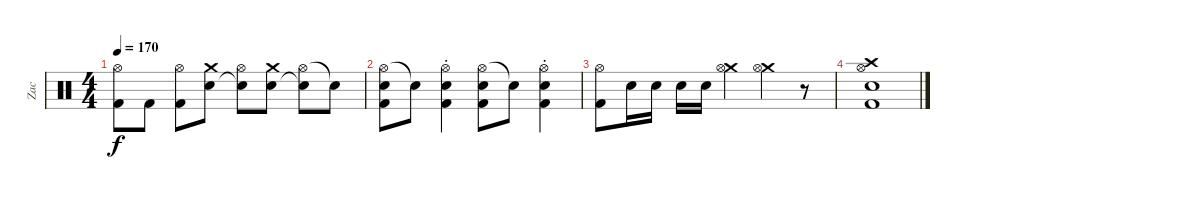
\track ("Zac" "Zac") {instrument percussion}
\staff {score}
\articulation defaults
\ts (4 4)
\tempo 170
\clef neutral
\ks c
("Hi-Hat (open)" "Kick (hit) 2").8{dy f} "Kick (hit) 2".8 ("Hi-Hat (open)" "Kick (hit) 2").8 ("Crash medium (hit)" "Electric Snare (hit)").8 ("Hi-Hat (open)" "Electric Snare (hit)"{t}).8 ("Crash medium (hit)" "Electric Snare (hit)").8 ("Hi-Hat (open)" "Electric Snare (hit)"{t}).8 "Electric Snare (hit)"{t}.8 |
("Hi-Hat (open)" "Electric Snare (hit)" "Kick (hit) 2").8 "Electric Snare (hit)"{t}.8 ("Hi-Hat (open)"{st} "Electric Snare (hit)" "Kick (hit) 2").4 ("Hi-Hat (open)" "Electric Snare (hit)" "Kick (hit) 2").8 "Snare (hit)"{t}.8 ("Hi-Hat (open)"{st} "Electric Snare (hit)" "Kick (hit) 2").4 |
("Hi-Hat (open)" "Kick (hit) 2").8 "Electric Snare (hit)".16 "Electric Snare (hit)".16 "Electric Snare (hit)".16 "Electric Snare (hit)".16 ("Crash medium (hit)" "Hi-Hat (open)").4 ("Crash medium (hit)" "Hi-Hat (open)").4 r.8 |
("Crash high (hit)" "Hi-Hat (open)" "Electric Snare (hit)" "Kick (hit) 2").1
